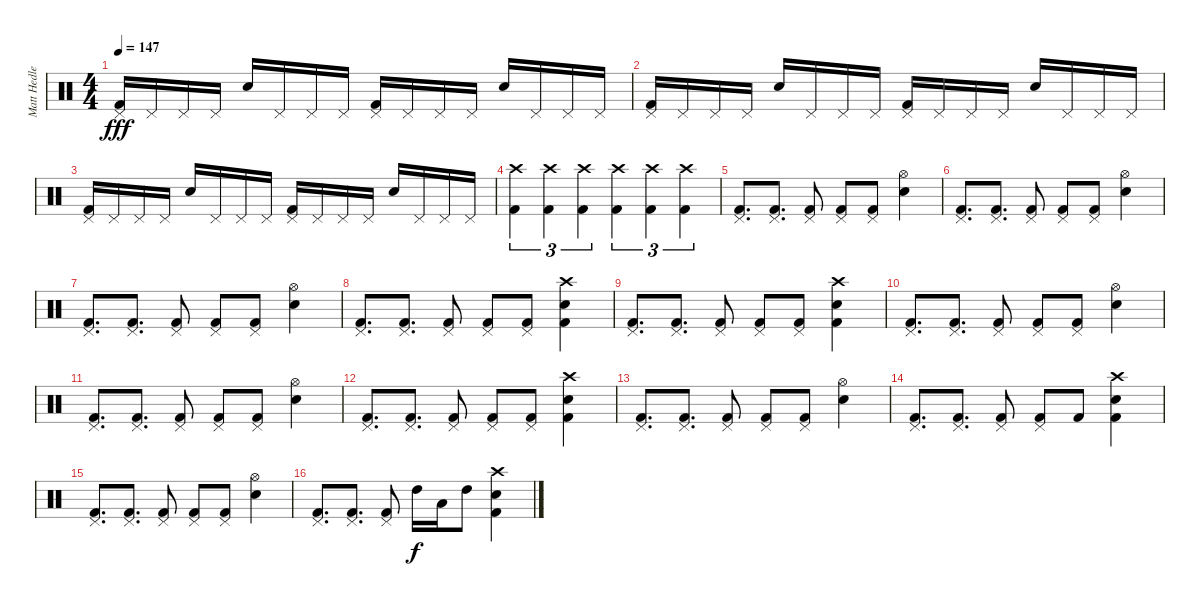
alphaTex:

\track ("Matt Hedlers" "Matt Hedle") {instrument percussion}
\staff {score}
\articulation defaults
\ts (4 4)
\tempo 147
\clef neutral
\ks c
("Pedal Hi-Hat (hit)" "Kick (hit) 2").16{dy fff} "Pedal Hi-Hat (hit)".16 "Pedal Hi-Hat (hit)".16 "Pedal Hi-Hat (hit)".16 "Snare (hit) 2".16 "Pedal Hi-Hat (hit)".16 "Pedal Hi-Hat (hit)".16 "Pedal Hi-Hat (hit)".16 ("Pedal Hi-Hat (hit)" "Kick (hit) 2").16 "Pedal Hi-Hat (hit)".16 "Pedal Hi-Hat (hit)".16 "Pedal Hi-Hat (hit)".16 "Snare (hit) 2".16 "Pedal Hi-Hat (hit)".16 "Pedal Hi-Hat (hit)".16 "Pedal Hi-Hat (hit)".16 |
("Pedal Hi-Hat (hit)" "Kick (hit) 2").16 "Pedal Hi-Hat (hit)".16 "Pedal Hi-Hat (hit)".16 "Pedal Hi-Hat (hit)".16 "Snare (hit) 2".16 "Pedal Hi-Hat (hit)".16 "Pedal Hi-Hat (hit)".16 "Pedal Hi-Hat (hit)".16 ("Pedal Hi-Hat (hit)" "Kick (hit) 2").16 "Pedal Hi-Hat (hit)".16 "Pedal Hi-Hat (hit)".16 "Pedal Hi-Hat (hit)".16 "Snare (hit) 2".16 "Pedal Hi-Hat (hit)".16 "Pedal Hi-Hat (hit)".16 "Pedal Hi-Hat (hit)".16 |
("Pedal Hi-Hat (hit)" "Kick (hit) 2").16 "Pedal Hi-Hat (hit)".16 "Pedal Hi-Hat (hit)".16 "Pedal Hi-Hat (hit)".16 "Snare (hit) 2".16 "Pedal Hi-Hat (hit)".16 "Pedal Hi-Hat (hit)".16 "Pedal Hi-Hat (hit)".16 ("Pedal Hi-Hat (hit)" "Kick (hit) 2").16 "Pedal Hi-Hat (hit)".16 "Pedal Hi-Hat (hit)".16 "Pedal Hi-Hat (hit)".16 "Snare (hit) 2".16 "Pedal Hi-Hat (hit)".16 "Pedal Hi-Hat (hit)".16 "Pedal Hi-Hat (hit)".16 |
("Crash high (hit)" "Kick (hit) 2").4{tu (3 2)} ("Crash high (hit)" "Kick (hit) 2").4{tu (3 2)} ("Crash high (hit)" "Kick (hit) 2").4{tu (3 2)} ("Crash high (hit)" "Kick (hit) 2").4{tu (3 2)} ("Crash high (hit)" "Kick (hit) 2").4{tu (3 2)} ("Crash high (hit)" "Kick (hit) 2").4{tu (3 2)} |
("Pedal Hi-Hat (hit)" "Kick (hit) 2").8{d} ("Pedal Hi-Hat (hit)" "Kick (hit) 2").8{d} ("Pedal Hi-Hat (hit)" "Kick (hit) 2").8 ("Pedal Hi-Hat (hit)" "Kick (hit) 2").8 ("Pedal Hi-Hat (hit)" "Kick (hit) 2").8 ("Hi-Hat (open)" "Snare (hit) 2").4 |
("Pedal Hi-Hat (hit)" "Kick (hit) 2").8{d} ("Pedal Hi-Hat (hit)" "Kick (hit) 2").8{d} ("Pedal Hi-Hat (hit)" "Kick (hit) 2").8 ("Pedal Hi-Hat (hit)" "Kick (hit) 2").8 ("Pedal Hi-Hat (hit)" "Kick (hit) 2").8 ("Hi-Hat (open)" "Snare (hit) 2").4 |
("Pedal Hi-Hat (hit)" "Kick (hit) 2").8{d} ("Pedal Hi-Hat (hit)" "Kick (hit) 2").8{d} ("Pedal Hi-Hat (hit)" "Kick (hit) 2").8 ("Pedal Hi-Hat (hit)" "Kick (hit) 2").8 ("Pedal Hi-Hat (hit)" "Kick (hit) 2").8 ("Hi-Hat (open)" "Snare (hit) 2").4 |
("Pedal Hi-Hat (hit)" "Kick (hit) 2").8{d} ("Pedal Hi-Hat (hit)" "Kick (hit) 2").8{d} ("Pedal Hi-Hat (hit)" "Kick (hit) 2").8 ("Pedal Hi-Hat (hit)" "Kick (hit) 2").8 ("Pedal Hi-Hat (hit)" "Kick (hit) 2").8 ("Crash high (hit)" "Snare (hit) 2" "Kick (hit) 2").4 |
("Pedal Hi-Hat (hit)" "Kick (hit) 2").8{d} ("Pedal Hi-Hat (hit)" "Kick (hit) 2").8{d} ("Pedal Hi-Hat (hit)" "Kick (hit) 2").8 ("Pedal Hi-Hat (hit)" "Kick (hit) 2").8 ("Pedal Hi-Hat (hit)" "Kick (hit) 2").8 ("Crash high (hit)" "Snare (hit) 2" "Kick (hit) 2").4 |
("Pedal Hi-Hat (hit)" "Kick (hit) 2").8{d} ("Pedal Hi-Hat (hit)" "Kick (hit) 2").8{d} ("Pedal Hi-Hat (hit)" "Kick (hit) 2").8 ("Pedal Hi-Hat (hit)" "Kick (hit) 2").8 ("Pedal Hi-Hat (hit)" "Kick (hit) 2").8 ("Hi-Hat (open)" "Snare (hit) 2").4 |
("Pedal Hi-Hat (hit)" "Kick (hit) 2").8{d} ("Pedal Hi-Hat (hit)" "Kick (hit) 2").8{d} ("Pedal Hi-Hat (hit)" "Kick (hit) 2").8 ("Pedal Hi-Hat (hit)" "Kick (hit) 2").8 ("Pedal Hi-Hat (hit)" "Kick (hit) 2").8 ("Hi-Hat (open)" "Snare (hit) 2").4 |
("Pedal Hi-Hat (hit)" "Kick (hit) 2").8{d} ("Pedal Hi-Hat (hit)" "Kick (hit) 2").8{d} ("Pedal Hi-Hat (hit)" "Kick (hit) 2").8 ("Pedal Hi-Hat (hit)" "Kick (hit) 2").8 ("Pedal Hi-Hat (hit)" "Kick (hit) 2").8 ("Crash high (hit)" "Snare (hit) 2" "Kick (hit) 2").4 |
("Pedal Hi-Hat (hit)" "Kick (hit) 2").8{d} ("Pedal Hi-Hat (hit)" "Kick (hit) 2").8{d} ("Pedal Hi-Hat (hit)" "Kick (hit) 2").8 ("Pedal Hi-Hat (hit)" "Kick (hit) 2").8 ("Pedal Hi-Hat (hit)" "Kick (hit) 2").8 ("Hi-Hat (open)" "Snare (hit) 2").4 |
("Pedal Hi-Hat (hit)" "Kick (hit) 2").8{d} ("Pedal Hi-Hat (hit)" "Kick (hit) 2").8{d} ("Pedal Hi-Hat (hit)" "Kick (hit) 2").8 ("Pedal Hi-Hat (hit)" "Kick (hit) 2").8 "Kick (hit) 2".8 ("Crash high (hit)" "Snare (hit) 2" "Kick (hit) 2").4 |
("Pedal Hi-Hat (hit)" "Kick (hit) 2").8{d} ("Pedal Hi-Hat (hit)" "Kick (hit) 2").8{d} ("Pedal Hi-Hat (hit)" "Kick (hit) 2").8 ("Pedal Hi-Hat (hit)" "Kick (hit) 2").8 ("Pedal Hi-Hat (hit)" "Kick (hit) 2").8 ("Hi-Hat (open)" "Snare (hit) 2").4 |
("Pedal Hi-Hat (hit)" "Kick (hit) 2").8{d} ("Pedal Hi-Hat (hit)" "Kick (hit) 2").8{d} ("Pedal Hi-Hat (hit)" "Kick (hit) 2").8 "High Tom (hit)".16{dy f} "Low Tom (hit)".16 "High Tom (hit)".8 ("Crash high (hit)" "Snare (hit) 2" "Kick (hit) 2").4
